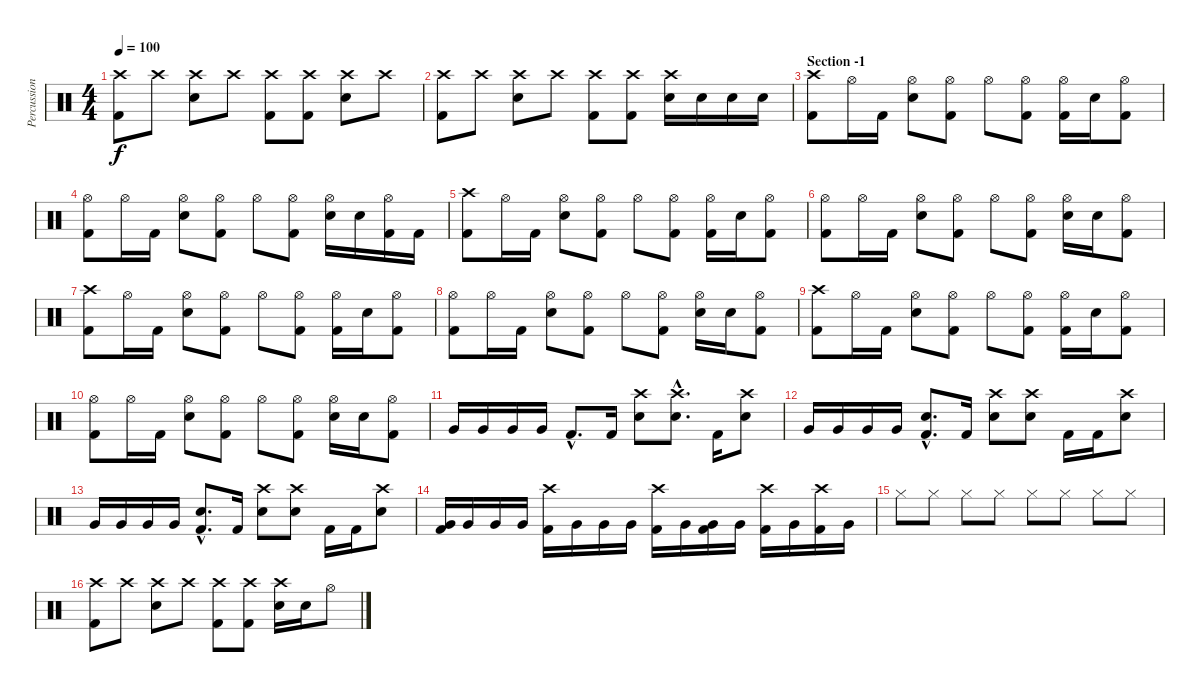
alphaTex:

\track ("Percussions" "Percussion") {instrument percussion}
\staff {score}
\articulation defaults
\ts (4 4)
\tempo 100
\clef neutral
\ks c
("Crash high (hit)" "Kick (hit) 2").8{dy f} "Crash high (hit)".8 ("Crash high (hit)" "Snare (hit) 2").8 "Crash high (hit)".8 ("Crash high (hit)" "Kick (hit) 2").8 ("Crash high (hit)" "Kick (hit) 2").8 ("Crash high (hit)" "Snare (hit) 2").8 "Crash high (hit)".8 |
("Crash high (hit)" "Kick (hit) 2").8 "Crash high (hit)".8 ("Crash high (hit)" "Snare (hit) 2").8 "Crash high (hit)".8 ("Crash high (hit)" "Kick (hit) 2").8 ("Crash high (hit)" "Kick (hit) 2").8 ("Crash high (hit)" "Snare (hit) 2").16 "Snare (hit) 2".16 "Snare (hit) 2".16 "Snare (hit) 2".16 |
\section ("" "Section -1")
("Crash high (hit)" "Kick (hit) 2").8 "Hi-Hat (open)".16 "Kick (hit) 2".16 ("Hi-Hat (open)" "Snare (hit) 2").8 ("Hi-Hat (open)" "Kick (hit) 2").8 "Hi-Hat (open)".8 ("Hi-Hat (open)" "Kick (hit) 2").8 ("Hi-Hat (open)" "Kick (hit) 2").16 "Snare (hit) 2".16 ("Hi-Hat (open)" "Kick (hit) 2").8 |
("Hi-Hat (open)" "Kick (hit) 2").8 "Hi-Hat (open)".16 "Kick (hit) 2".16 ("Hi-Hat (open)" "Snare (hit) 2").8 ("Hi-Hat (open)" "Kick (hit) 2").8 "Hi-Hat (open)".8 ("Hi-Hat (open)" "Kick (hit) 2").8 ("Hi-Hat (open)" "Snare (hit) 2").16 "Snare (hit) 2".16 ("Hi-Hat (open)" "Kick (hit) 2").16 "Kick (hit) 2".16 |
("Crash high (hit)" "Kick (hit) 2").8 "Hi-Hat (open)".16 "Kick (hit) 2".16 ("Hi-Hat (open)" "Snare (hit) 2").8 ("Hi-Hat (open)" "Kick (hit) 2").8 "Hi-Hat (open)".8 ("Hi-Hat (open)" "Kick (hit) 2").8 ("Hi-Hat (open)" "Kick (hit) 2").16 "Snare (hit) 2".16 ("Hi-Hat (open)" "Kick (hit) 2").8 |
("Hi-Hat (open)" "Kick (hit) 2").8 "Hi-Hat (open)".16 "Kick (hit) 2".16 ("Hi-Hat (open)" "Snare (hit) 2").8 ("Hi-Hat (open)" "Kick (hit) 2").8 "Hi-Hat (open)".8 ("Hi-Hat (open)" "Kick (hit) 2").8 ("Hi-Hat (open)" "Snare (hit) 2").16 "Snare (hit) 2".16 ("Hi-Hat (open)" "Kick (hit) 2").8 |
("Crash high (hit)" "Kick (hit) 2").8 "Hi-Hat (open)".16 "Kick (hit) 2".16 ("Hi-Hat (open)" "Snare (hit) 2").8 ("Hi-Hat (open)" "Kick (hit) 2").8 "Hi-Hat (open)".8 ("Hi-Hat (open)" "Kick (hit) 2").8 ("Hi-Hat (open)" "Kick (hit) 2").16 "Snare (hit) 2".16 ("Hi-Hat (open)" "Kick (hit) 2").8 |
("Hi-Hat (open)" "Kick (hit) 2").8 "Hi-Hat (open)".16 "Kick (hit) 2".16 ("Hi-Hat (open)" "Snare (hit) 2").8 ("Hi-Hat (open)" "Kick (hit) 2").8 "Hi-Hat (open)".8 ("Hi-Hat (open)" "Kick (hit) 2").8 ("Hi-Hat (open)" "Snare (hit) 2").16 "Snare (hit) 2".16 ("Hi-Hat (open)" "Kick (hit) 2").8 |
("Crash high (hit)" "Kick (hit) 2").8 "Hi-Hat (open)".16 "Kick (hit) 2".16 ("Hi-Hat (open)" "Snare (hit) 2").8 ("Hi-Hat (open)" "Kick (hit) 2").8 "Hi-Hat (open)".8 ("Hi-Hat (open)" "Kick (hit) 2").8 ("Hi-Hat (open)" "Kick (hit) 2").16 "Snare (hit) 2".16 ("Hi-Hat (open)" "Kick (hit) 2").8 |
("Hi-Hat (open)" "Kick (hit) 2").8 "Hi-Hat (open)".16 "Kick (hit) 2".16 ("Hi-Hat (open)" "Snare (hit) 2").8 ("Hi-Hat (open)" "Kick (hit) 2").8 "Hi-Hat (open)".8 ("Hi-Hat (open)" "Kick (hit) 2").8 ("Hi-Hat (open)" "Snare (hit) 2").16 "Snare (hit) 2".16 ("Hi-Hat (open)" "Kick (hit) 2").8 |
"Very Low Tom (hit)".16 "Very Low Tom (hit)".16 "Very Low Tom (hit)".16 "Very Low Tom (hit)".16 "Kick (hit) 2"{hac}.8{d} "Kick (hit) 2".16 ("Crash high (hit)" "Snare (hit) 2").8 ("Crash high (hit)"{hac} "Snare (hit) 2"{hac}).8{d} "Kick (hit) 2".16 ("Crash high (hit)" "Snare (hit) 2").8 |
"Very Low Tom (hit)".16 "Very Low Tom (hit)".16 "Very Low Tom (hit)".16 "Very Low Tom (hit)".16 ("Snare (hit) 2"{hac} "Kick (hit) 2"{hac}).8{d} "Kick (hit) 2".16 ("Crash high (hit)" "Snare (hit) 2").8 ("Crash high (hit)" "Snare (hit) 2").8 "Kick (hit) 2".16 "Kick (hit) 2".16 ("Crash high (hit)" "Snare (hit) 2").8 |
"Very Low Tom (hit)".16 "Very Low Tom (hit)".16 "Very Low Tom (hit)".16 "Very Low Tom (hit)".16 ("Snare (hit) 2"{hac} "Kick (hit) 2"{hac}).8{d} "Kick (hit) 2".16 ("Crash high (hit)" "Snare (hit) 2").8 ("Crash high (hit)" "Snare (hit) 2").8 "Kick (hit) 2".16 "Kick (hit) 2".16 ("Crash high (hit)" "Snare (hit) 2").8 |
("Very Low Tom (hit)" "Kick (hit) 2").16 "Very Low Tom (hit)".16 "Very Low Tom (hit)".16 "Very Low Tom (hit)".16 ("Crash high (hit)" "Kick (hit) 2").16 "Very Low Tom (hit)".16 "Very Low Tom (hit)".16 "Very Low Tom (hit)".16 ("Crash high (hit)" "Kick (hit) 2").16 "Very Low Tom (hit)".16 ("Very Low Tom (hit)" "Kick (hit) 2").16 "Very Low Tom (hit)".16 ("Crash high (hit)" "Kick (hit) 2").16 "Very Low Tom (hit)".16 ("Crash high (hit)" "Kick (hit) 2").16 "Very Low Tom (hit)".16 |
"Hi-Hat (closed)".8 "Hi-Hat (closed)".8 "Hi-Hat (closed)".8 "Hi-Hat (closed)".8 "Hi-Hat (closed)".8 "Hi-Hat (closed)".8 "Hi-Hat (closed)".8 "Hi-Hat (closed)".8 |
("Crash high (hit)" "Kick (hit) 2").8 "Crash high (hit)".8 ("Crash high (hit)" "Snare (hit) 2").8 "Crash high (hit)".8 ("Crash high (hit)" "Kick (hit) 2").8 ("Crash high (hit)" "Kick (hit) 2").8 ("Crash high (hit)" "Snare (hit) 2").16 "Snare (hit) 2".16 "Hi-Hat (open)".8
